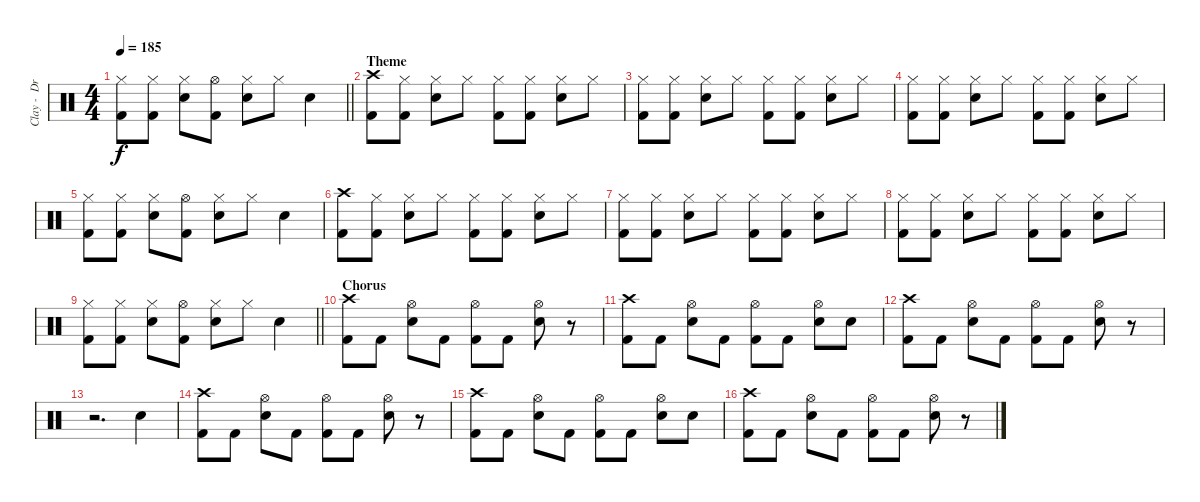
\track ("Clay -  Drums" "Clay -  Dr") {instrument percussion}
\staff {score}
\articulation defaults
\ts (4 4)
\tempo 185
\clef neutral
\barLineRight lightlight
\ks c
("Hi-Hat (closed)" "Kick (hit) 2").8{dy f} ("Hi-Hat (closed)" "Kick (hit) 2").8 ("Hi-Hat (closed)" "Electric Snare (hit)").8 ("Hi-Hat (open)" "Kick (hit) 2").8 ("Hi-Hat (closed)" "Electric Snare (hit)").8 "Hi-Hat (closed)".8 "Electric Snare (hit)".4 |
\section ("" "Theme")
("Crash high (hit)" "Kick (hit) 2").8 ("Hi-Hat (closed)" "Kick (hit) 2").8 ("Hi-Hat (closed)" "Electric Snare (hit)").8 "Hi-Hat (closed)".8 ("Hi-Hat (closed)" "Kick (hit) 2").8 ("Hi-Hat (closed)" "Kick (hit) 2").8 ("Hi-Hat (closed)" "Electric Snare (hit)").8 "Hi-Hat (closed)".8 |
("Hi-Hat (closed)" "Kick (hit) 2").8 ("Hi-Hat (closed)" "Kick (hit) 2").8 ("Hi-Hat (closed)" "Electric Snare (hit)").8 "Hi-Hat (closed)".8 ("Hi-Hat (closed)" "Kick (hit) 2").8 ("Hi-Hat (closed)" "Kick (hit) 2").8 ("Hi-Hat (closed)" "Electric Snare (hit)").8 "Hi-Hat (closed)".8 |
("Hi-Hat (closed)" "Kick (hit) 2").8 ("Hi-Hat (closed)" "Kick (hit) 2").8 ("Hi-Hat (closed)" "Electric Snare (hit)").8 "Hi-Hat (closed)".8 ("Hi-Hat (closed)" "Kick (hit) 2").8 ("Hi-Hat (closed)" "Kick (hit) 2").8 ("Hi-Hat (closed)" "Electric Snare (hit)").8 "Hi-Hat (closed)".8 |
("Hi-Hat (closed)" "Kick (hit) 2").8 ("Hi-Hat (closed)" "Kick (hit) 2").8 ("Hi-Hat (closed)" "Electric Snare (hit)").8 ("Hi-Hat (open)" "Kick (hit) 2").8 ("Hi-Hat (closed)" "Electric Snare (hit)").8 "Hi-Hat (closed)".8 "Electric Snare (hit)".4 |
("Crash high (hit)" "Kick (hit) 2").8 ("Hi-Hat (closed)" "Kick (hit) 2").8 ("Hi-Hat (closed)" "Electric Snare (hit)").8 "Hi-Hat (closed)".8 ("Hi-Hat (closed)" "Kick (hit) 2").8 ("Hi-Hat (closed)" "Kick (hit) 2").8 ("Hi-Hat (closed)" "Electric Snare (hit)").8 "Hi-Hat (closed)".8 |
("Hi-Hat (closed)" "Kick (hit) 2").8 ("Hi-Hat (closed)" "Kick (hit) 2").8 ("Hi-Hat (closed)" "Electric Snare (hit)").8 "Hi-Hat (closed)".8 ("Hi-Hat (closed)" "Kick (hit) 2").8 ("Hi-Hat (closed)" "Kick (hit) 2").8 ("Hi-Hat (closed)" "Electric Snare (hit)").8 "Hi-Hat (closed)".8 |
("Hi-Hat (closed)" "Kick (hit) 2").8 ("Hi-Hat (closed)" "Kick (hit) 2").8 ("Hi-Hat (closed)" "Electric Snare (hit)").8 "Hi-Hat (closed)".8 ("Hi-Hat (closed)" "Kick (hit) 2").8 ("Hi-Hat (closed)" "Kick (hit) 2").8 ("Hi-Hat (closed)" "Electric Snare (hit)").8 "Hi-Hat (closed)".8 |
\barLineRight lightlight
("Hi-Hat (closed)" "Kick (hit) 2").8 ("Hi-Hat (closed)" "Kick (hit) 2").8 ("Hi-Hat (closed)" "Electric Snare (hit)").8 ("Hi-Hat (open)" "Kick (hit) 2").8 ("Hi-Hat (closed)" "Electric Snare (hit)").8 "Hi-Hat (closed)".8 "Electric Snare (hit)".4 |
\section ("" "Chorus")
("Crash high (hit)" "Kick (hit) 2").8 "Kick (hit) 2".8 ("Hi-Hat (open)" "Electric Snare (hit)").8 "Kick (hit) 2".8 ("Hi-Hat (open)" "Kick (hit) 2").8 "Kick (hit) 2".8 ("Hi-Hat (open)" "Electric Snare (hit)").8 r.8 |
("Crash high (hit)" "Kick (hit) 2").8 "Kick (hit) 2".8 ("Hi-Hat (open)" "Electric Snare (hit)").8 "Kick (hit) 2".8 ("Hi-Hat (open)" "Kick (hit) 2").8 "Kick (hit) 2".8 ("Hi-Hat (open)" "Electric Snare (hit)").8 "Electric Snare (hit)".8 |
("Crash high (hit)" "Kick (hit) 2").8 "Kick (hit) 2".8 ("Hi-Hat (open)" "Electric Snare (hit)").8 "Kick (hit) 2".8 ("Hi-Hat (open)" "Kick (hit) 2").8 "Kick (hit) 2".8 ("Hi-Hat (open)" "Electric Snare (hit)").8 r.8 |
r.2{d} "Electric Snare (hit)".4 |
("Crash high (hit)" "Kick (hit) 2").8 "Kick (hit) 2".8 ("Hi-Hat (open)" "Electric Snare (hit)").8 "Kick (hit) 2".8 ("Hi-Hat (open)" "Kick (hit) 2").8 "Kick (hit) 2".8 ("Hi-Hat (open)" "Electric Snare (hit)").8 r.8 |
("Crash high (hit)" "Kick (hit) 2").8 "Kick (hit) 2".8 ("Hi-Hat (open)" "Electric Snare (hit)").8 "Kick (hit) 2".8 ("Hi-Hat (open)" "Kick (hit) 2").8 "Kick (hit) 2".8 ("Hi-Hat (open)" "Electric Snare (hit)").8 "Electric Snare (hit)".8 |
("Crash high (hit)" "Kick (hit) 2").8 "Kick (hit) 2".8 ("Hi-Hat (open)" "Electric Snare (hit)").8 "Kick (hit) 2".8 ("Hi-Hat (open)" "Kick (hit) 2").8 "Kick (hit) 2".8 ("Hi-Hat (open)" "Electric Snare (hit)").8 r.8
